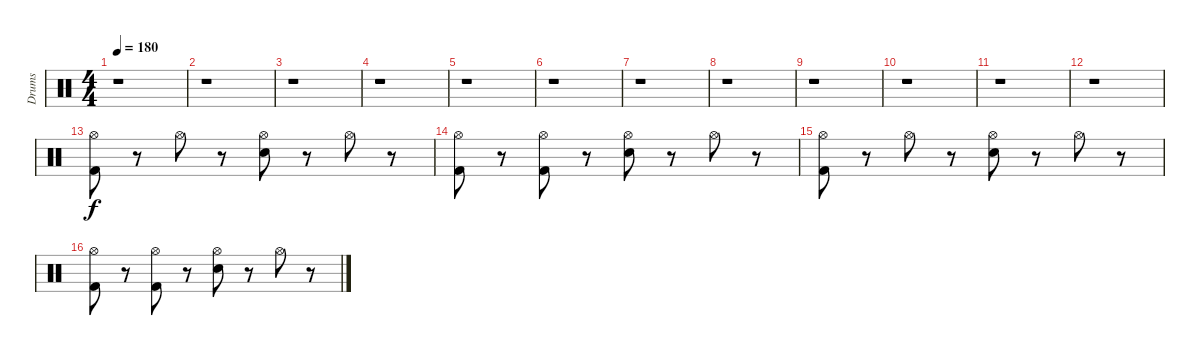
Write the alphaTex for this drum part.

\track ("Drums" "Drums") {instrument percussion}
\staff {score}
\articulation defaults
\ts (4 4)
\tempo 180
\clef neutral
\ks c
r.1{dy f} |
r.1 |
r.1 |
r.1 |
r.1 |
r.1 |
r.1 |
r.1 |
r.1 |
r.1 |
r.1 |
r.1 |
("Hi-Hat (open)" "Kick (hit) 2").8 r.8 "Hi-Hat (open)".8 r.8 ("Hi-Hat (open)" "Electric Snare (hit)").8 r.8 "Hi-Hat (open)".8 r.8 |
("Hi-Hat (open)" "Kick (hit) 2").8 r.8 ("Hi-Hat (open)" "Kick (hit) 2").8 r.8 ("Hi-Hat (open)" "Electric Snare (hit)").8 r.8 "Hi-Hat (open)".8 r.8 |
("Hi-Hat (open)" "Kick (hit) 2").8 r.8 "Hi-Hat (open)".8 r.8 ("Hi-Hat (open)" "Electric Snare (hit)").8 r.8 "Hi-Hat (open)".8 r.8 |
("Hi-Hat (open)" "Kick (hit) 2").8 r.8 ("Hi-Hat (open)" "Kick (hit) 2").8 r.8 ("Hi-Hat (open)" "Electric Snare (hit)").8 r.8 "Hi-Hat (open)".8 r.8
